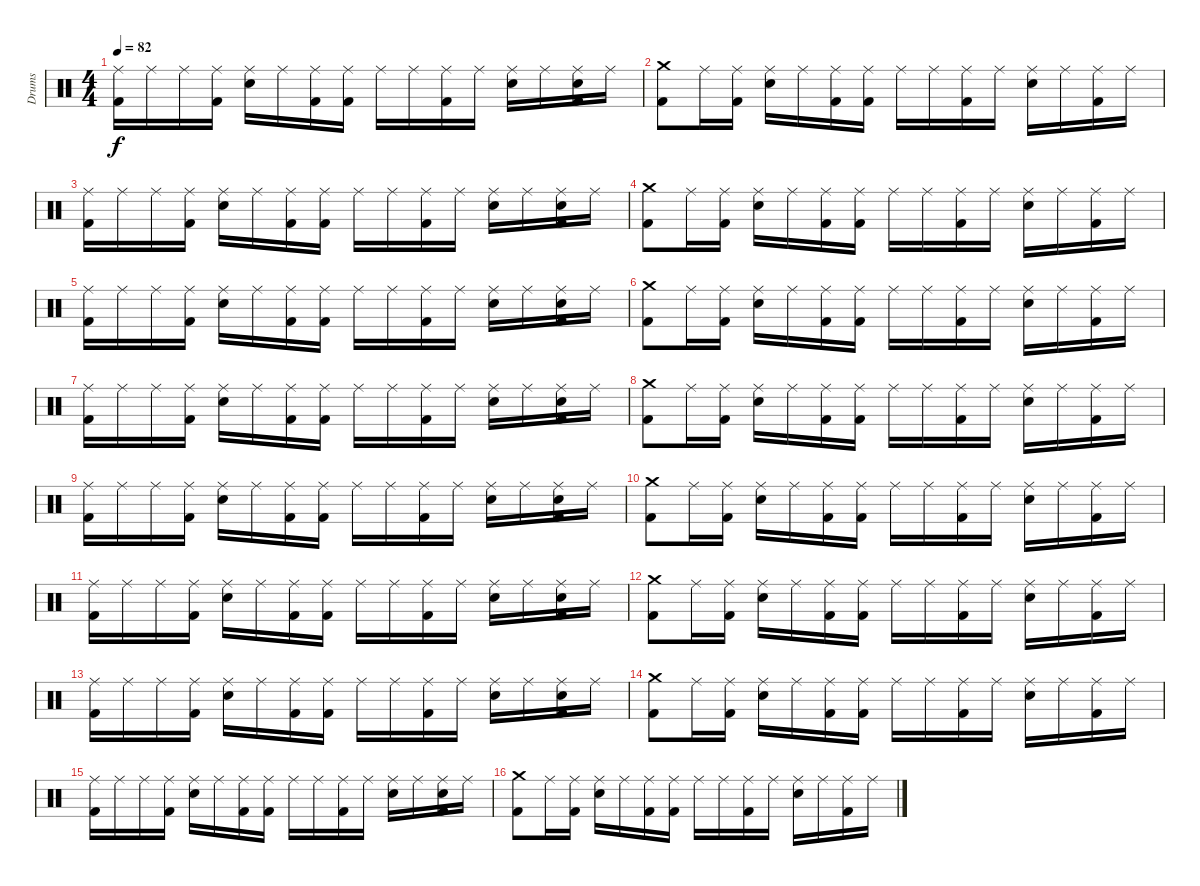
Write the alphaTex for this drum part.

\track ("Drums" "Drums") {instrument percussion}
\staff {score}
\articulation defaults
\ts (4 4)
\tempo 82
\clef neutral
\ks c
("Ride (middle)" "Kick (hit) 2").16{dy f} "Ride (middle)".16 "Ride (middle)".16 ("Ride (middle)" "Kick (hit) 2").16 ("Ride (middle)" "Snare (hit) 2").16 "Ride (middle)".16 ("Ride (middle)" "Kick (hit) 2").16 ("Ride (middle)" "Kick (hit) 2").16 "Ride (middle)".16 "Ride (middle)".16 ("Ride (middle)" "Kick (hit) 2").16 "Ride (middle)".16 ("Ride (middle)" "Snare (hit) 2").16 "Ride (middle)".16 ("Ride (middle)" "Snare (hit) 2" "Kick (hit) 2").16 "Ride (middle)".16 |
("Crash medium (hit)" "Kick (hit) 2").8 "Ride (middle)".16 ("Ride (middle)" "Kick (hit) 2").16 ("Ride (middle)" "Snare (hit) 2").16 "Ride (middle)".16 ("Ride (middle)" "Kick (hit) 2").16 ("Ride (middle)" "Kick (hit) 2").16 "Ride (middle)".16 "Ride (middle)".16 ("Ride (middle)" "Kick (hit) 2").16 "Ride (middle)".16 ("Ride (middle)" "Snare (hit) 2").16 "Ride (middle)".16 ("Ride (middle)" "Kick (hit) 2").16 "Ride (middle)".16 |
("Ride (middle)" "Kick (hit) 2").16 "Ride (middle)".16 "Ride (middle)".16 ("Ride (middle)" "Kick (hit) 2").16 ("Ride (middle)" "Snare (hit) 2").16 "Ride (middle)".16 ("Ride (middle)" "Kick (hit) 2").16 ("Ride (middle)" "Kick (hit) 2").16 "Ride (middle)".16 "Ride (middle)".16 ("Ride (middle)" "Kick (hit) 2").16 "Ride (middle)".16 ("Ride (middle)" "Snare (hit) 2").16 "Ride (middle)".16 ("Ride (middle)" "Snare (hit) 2" "Kick (hit) 2").16 "Ride (middle)".16 |
("Crash medium (hit)" "Kick (hit) 2").8 "Ride (middle)".16 ("Ride (middle)" "Kick (hit) 2").16 ("Ride (middle)" "Snare (hit) 2").16 "Ride (middle)".16 ("Ride (middle)" "Kick (hit) 2").16 ("Ride (middle)" "Kick (hit) 2").16 "Ride (middle)".16 "Ride (middle)".16 ("Ride (middle)" "Kick (hit) 2").16 "Ride (middle)".16 ("Ride (middle)" "Snare (hit) 2").16 "Ride (middle)".16 ("Ride (middle)" "Kick (hit) 2").16 "Ride (middle)".16 |
("Ride (middle)" "Kick (hit) 2").16 "Ride (middle)".16 "Ride (middle)".16 ("Ride (middle)" "Kick (hit) 2").16 ("Ride (middle)" "Snare (hit) 2").16 "Ride (middle)".16 ("Ride (middle)" "Kick (hit) 2").16 ("Ride (middle)" "Kick (hit) 2").16 "Ride (middle)".16 "Ride (middle)".16 ("Ride (middle)" "Kick (hit) 2").16 "Ride (middle)".16 ("Ride (middle)" "Snare (hit) 2").16 "Ride (middle)".16 ("Ride (middle)" "Snare (hit) 2" "Kick (hit) 2").16 "Ride (middle)".16 |
("Crash medium (hit)" "Kick (hit) 2").8 "Ride (middle)".16 ("Ride (middle)" "Kick (hit) 2").16 ("Ride (middle)" "Snare (hit) 2").16 "Ride (middle)".16 ("Ride (middle)" "Kick (hit) 2").16 ("Ride (middle)" "Kick (hit) 2").16 "Ride (middle)".16 "Ride (middle)".16 ("Ride (middle)" "Kick (hit) 2").16 "Ride (middle)".16 ("Ride (middle)" "Snare (hit) 2").16 "Ride (middle)".16 ("Ride (middle)" "Kick (hit) 2").16 "Ride (middle)".16 |
("Ride (middle)" "Kick (hit) 2").16 "Ride (middle)".16 "Ride (middle)".16 ("Ride (middle)" "Kick (hit) 2").16 ("Ride (middle)" "Snare (hit) 2").16 "Ride (middle)".16 ("Ride (middle)" "Kick (hit) 2").16 ("Ride (middle)" "Kick (hit) 2").16 "Ride (middle)".16 "Ride (middle)".16 ("Ride (middle)" "Kick (hit) 2").16 "Ride (middle)".16 ("Ride (middle)" "Snare (hit) 2").16 "Ride (middle)".16 ("Ride (middle)" "Snare (hit) 2" "Kick (hit) 2").16 "Ride (middle)".16 |
("Crash medium (hit)" "Kick (hit) 2").8 "Ride (middle)".16 ("Ride (middle)" "Kick (hit) 2").16 ("Ride (middle)" "Snare (hit) 2").16 "Ride (middle)".16 ("Ride (middle)" "Kick (hit) 2").16 ("Ride (middle)" "Kick (hit) 2").16 "Ride (middle)".16 "Ride (middle)".16 ("Ride (middle)" "Kick (hit) 2").16 "Ride (middle)".16 ("Ride (middle)" "Snare (hit) 2").16 "Ride (middle)".16 ("Ride (middle)" "Kick (hit) 2").16 "Ride (middle)".16 |
("Ride (middle)" "Kick (hit) 2").16 "Ride (middle)".16 "Ride (middle)".16 ("Ride (middle)" "Kick (hit) 2").16 ("Ride (middle)" "Snare (hit) 2").16 "Ride (middle)".16 ("Ride (middle)" "Kick (hit) 2").16 ("Ride (middle)" "Kick (hit) 2").16 "Ride (middle)".16 "Ride (middle)".16 ("Ride (middle)" "Kick (hit) 2").16 "Ride (middle)".16 ("Ride (middle)" "Snare (hit) 2").16 "Ride (middle)".16 ("Ride (middle)" "Snare (hit) 2" "Kick (hit) 2").16 "Ride (middle)".16 |
("Crash medium (hit)" "Kick (hit) 2").8 "Ride (middle)".16 ("Ride (middle)" "Kick (hit) 2").16 ("Ride (middle)" "Snare (hit) 2").16 "Ride (middle)".16 ("Ride (middle)" "Kick (hit) 2").16 ("Ride (middle)" "Kick (hit) 2").16 "Ride (middle)".16 "Ride (middle)".16 ("Ride (middle)" "Kick (hit) 2").16 "Ride (middle)".16 ("Ride (middle)" "Snare (hit) 2").16 "Ride (middle)".16 ("Ride (middle)" "Kick (hit) 2").16 "Ride (middle)".16 |
("Ride (middle)" "Kick (hit) 2").16 "Ride (middle)".16 "Ride (middle)".16 ("Ride (middle)" "Kick (hit) 2").16 ("Ride (middle)" "Snare (hit) 2").16 "Ride (middle)".16 ("Ride (middle)" "Kick (hit) 2").16 ("Ride (middle)" "Kick (hit) 2").16 "Ride (middle)".16 "Ride (middle)".16 ("Ride (middle)" "Kick (hit) 2").16 "Ride (middle)".16 ("Ride (middle)" "Snare (hit) 2").16 "Ride (middle)".16 ("Ride (middle)" "Snare (hit) 2" "Kick (hit) 2").16 "Ride (middle)".16 |
("Crash medium (hit)" "Kick (hit) 2").8 "Ride (middle)".16 ("Ride (middle)" "Kick (hit) 2").16 ("Ride (middle)" "Snare (hit) 2").16 "Ride (middle)".16 ("Ride (middle)" "Kick (hit) 2").16 ("Ride (middle)" "Kick (hit) 2").16 "Ride (middle)".16 "Ride (middle)".16 ("Ride (middle)" "Kick (hit) 2").16 "Ride (middle)".16 ("Ride (middle)" "Snare (hit) 2").16 "Ride (middle)".16 ("Ride (middle)" "Kick (hit) 2").16 "Ride (middle)".16 |
("Ride (middle)" "Kick (hit) 2").16 "Ride (middle)".16 "Ride (middle)".16 ("Ride (middle)" "Kick (hit) 2").16 ("Ride (middle)" "Snare (hit) 2").16 "Ride (middle)".16 ("Ride (middle)" "Kick (hit) 2").16 ("Ride (middle)" "Kick (hit) 2").16 "Ride (middle)".16 "Ride (middle)".16 ("Ride (middle)" "Kick (hit) 2").16 "Ride (middle)".16 ("Ride (middle)" "Snare (hit) 2").16 "Ride (middle)".16 ("Ride (middle)" "Snare (hit) 2" "Kick (hit) 2").16 "Ride (middle)".16 |
("Crash medium (hit)" "Kick (hit) 2").8 "Ride (middle)".16 ("Ride (middle)" "Kick (hit) 2").16 ("Ride (middle)" "Snare (hit) 2").16 "Ride (middle)".16 ("Ride (middle)" "Kick (hit) 2").16 ("Ride (middle)" "Kick (hit) 2").16 "Ride (middle)".16 "Ride (middle)".16 ("Ride (middle)" "Kick (hit) 2").16 "Ride (middle)".16 ("Ride (middle)" "Snare (hit) 2").16 "Ride (middle)".16 ("Ride (middle)" "Kick (hit) 2").16 "Ride (middle)".16 |
("Ride (middle)" "Kick (hit) 2").16 "Ride (middle)".16 "Ride (middle)".16 ("Ride (middle)" "Kick (hit) 2").16 ("Ride (middle)" "Snare (hit) 2").16 "Ride (middle)".16 ("Ride (middle)" "Kick (hit) 2").16 ("Ride (middle)" "Kick (hit) 2").16 "Ride (middle)".16 "Ride (middle)".16 ("Ride (middle)" "Kick (hit) 2").16 "Ride (middle)".16 ("Ride (middle)" "Snare (hit) 2").16 "Ride (middle)".16 ("Ride (middle)" "Snare (hit) 2" "Kick (hit) 2").16 "Ride (middle)".16 |
("Crash medium (hit)" "Kick (hit) 2").8 "Ride (middle)".16 ("Ride (middle)" "Kick (hit) 2").16 ("Ride (middle)" "Snare (hit) 2").16 "Ride (middle)".16 ("Ride (middle)" "Kick (hit) 2").16 ("Ride (middle)" "Kick (hit) 2").16 "Ride (middle)".16 "Ride (middle)".16 ("Ride (middle)" "Kick (hit) 2").16 "Ride (middle)".16 ("Ride (middle)" "Snare (hit) 2").16 "Ride (middle)".16 ("Ride (middle)" "Kick (hit) 2").16 "Ride (middle)".16
